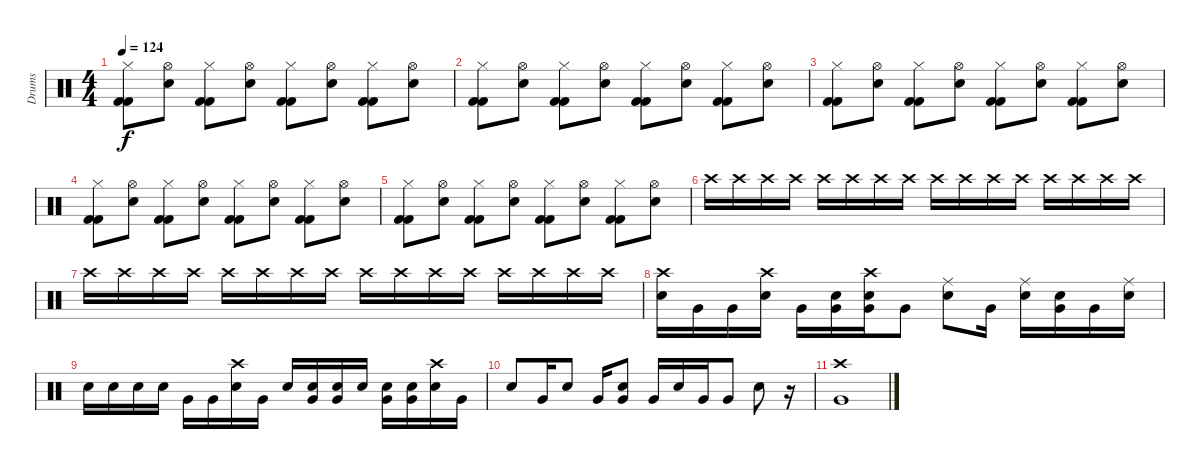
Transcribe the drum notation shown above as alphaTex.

\track ("Drums" "Drums") {instrument percussion}
\staff {score}
\articulation defaults
\ts (4 4)
\tempo 124
\clef neutral
\ks c
("Kick (hit) 2" "Kick (hit) 2" "Hi-Hat (closed)").8{dy f} ("Hand Clap (hit)" "Hi-Hat (open)").8 ("Kick (hit) 2" "Kick (hit) 2" "Hi-Hat (closed)").8 ("Hand Clap (hit)" "Hi-Hat (open)").8 ("Kick (hit) 2" "Kick (hit) 2" "Hi-Hat (closed)").8 ("Hand Clap (hit)" "Hi-Hat (open)").8 ("Kick (hit) 2" "Kick (hit) 2" "Hi-Hat (closed)").8 ("Hand Clap (hit)" "Hi-Hat (open)").8 |
("Kick (hit) 2" "Kick (hit) 2" "Hi-Hat (closed)").8 ("Hand Clap (hit)" "Hi-Hat (open)").8 ("Kick (hit) 2" "Kick (hit) 2" "Hi-Hat (closed)").8 ("Hand Clap (hit)" "Hi-Hat (open)").8 ("Kick (hit) 2" "Kick (hit) 2" "Hi-Hat (closed)").8 ("Hand Clap (hit)" "Hi-Hat (open)").8 ("Kick (hit) 2" "Kick (hit) 2" "Hi-Hat (closed)").8 ("Hand Clap (hit)" "Hi-Hat (open)").8 |
("Kick (hit) 2" "Kick (hit) 2" "Hi-Hat (closed)").8 ("Hand Clap (hit)" "Hi-Hat (open)").8 ("Kick (hit) 2" "Kick (hit) 2" "Hi-Hat (closed)").8 ("Hand Clap (hit)" "Hi-Hat (open)").8 ("Kick (hit) 2" "Kick (hit) 2" "Hi-Hat (closed)").8 ("Hand Clap (hit)" "Hi-Hat (open)").8 ("Kick (hit) 2" "Kick (hit) 2" "Hi-Hat (closed)").8 ("Hand Clap (hit)" "Hi-Hat (open)").8 |
("Kick (hit) 2" "Kick (hit) 2" "Hi-Hat (closed)").8 ("Hand Clap (hit)" "Hi-Hat (open)").8 ("Kick (hit) 2" "Kick (hit) 2" "Hi-Hat (closed)").8 ("Hand Clap (hit)" "Hi-Hat (open)").8 ("Kick (hit) 2" "Kick (hit) 2" "Hi-Hat (closed)").8 ("Hand Clap (hit)" "Hi-Hat (open)").8 ("Kick (hit) 2" "Kick (hit) 2" "Hi-Hat (closed)").8 ("Hand Clap (hit)" "Hi-Hat (open)").8 |
("Kick (hit) 2" "Kick (hit) 2" "Hi-Hat (closed)").8 ("Hand Clap (hit)" "Hi-Hat (open)").8 ("Kick (hit) 2" "Kick (hit) 2" "Hi-Hat (closed)").8 ("Hand Clap (hit)" "Hi-Hat (open)").8 ("Kick (hit) 2" "Kick (hit) 2" "Hi-Hat (closed)").8 ("Hand Clap (hit)" "Hi-Hat (open)").8 ("Kick (hit) 2" "Kick (hit) 2" "Hi-Hat (closed)").8 ("Hand Clap (hit)" "Hi-Hat (open)").8 |
"Crash high (hit)".16 "Crash high (hit)".16 "Crash high (hit)".16 "Crash high (hit)".16 "Crash high (hit)".16 "Crash high (hit)".16 "Crash high (hit)".16 "Crash high (hit)".16 "Crash high (hit)".16 "Crash high (hit)".16 "Crash high (hit)".16 "Crash high (hit)".16 "Crash high (hit)".16 "Crash high (hit)".16 "Crash high (hit)".16 "Crash high (hit)".16 |
"Crash high (hit)".16 "Crash high (hit)".16 "Crash high (hit)".16 "Crash high (hit)".16 "Crash high (hit)".16 "Crash high (hit)".16 "Crash high (hit)".16 "Crash high (hit)".16 "Crash high (hit)".16 "Crash high (hit)".16 "Crash high (hit)".16 "Crash high (hit)".16 "Crash high (hit)".16 "Crash high (hit)".16 "Crash high (hit)".16 "Crash high (hit)".16 |
("Electric Snare (hit)" "Crash high (hit)").16 "Very Low Tom (hit)".16 "Very Low Tom (hit)".16 ("Electric Snare (hit)" "Crash high (hit)").16 "Very Low Tom (hit)".16 ("Electric Snare (hit)" "Very Low Tom (hit)").16 ("Electric Snare (hit)" "Very Low Tom (hit)" "Crash high (hit)").16 "Very Low Tom (hit)".8 ("Electric Snare (hit)" "Ride (middle)").8 "Very Low Tom (hit)".16 ("Electric Snare (hit)" "Ride (middle)").16 ("Electric Snare (hit)" "Very Low Tom (hit)").16 "Very Low Tom (hit)".16 ("Electric Snare (hit)" "Ride (middle)").16 |
"Electric Snare (hit)".16 "Electric Snare (hit)".16 "Electric Snare (hit)".16 "Electric Snare (hit)".16 "Very Low Tom (hit)".16 "Very Low Tom (hit)".16 ("Electric Snare (hit)" "Crash high (hit)").16 "Very Low Tom (hit)".16 "Electric Snare (hit)".16 ("Electric Snare (hit)" "Very Low Tom (hit)").16 ("Electric Snare (hit)" "Very Low Tom (hit)").16 "Electric Snare (hit)".16 ("Electric Snare (hit)" "Very Low Tom (hit)").16 ("Electric Snare (hit)" "Very Low Tom (hit)").16 ("Electric Snare (hit)" "Crash high (hit)").16 "Very Low Tom (hit)".16 |
"Electric Snare (hit)".8 "Very Low Tom (hit)".16 "Electric Snare (hit)".8 "Very Low Tom (hit)".16 ("Electric Snare (hit)" "Very Low Tom (hit)").8 "Very Low Tom (hit)".16 "Electric Snare (hit)".16 "Very Low Tom (hit)".16 "Very Low Tom (hit)".8 "Electric Snare (hit)".8 r.16 |
("Very Low Tom (hit)" "Crash high (hit)").1
